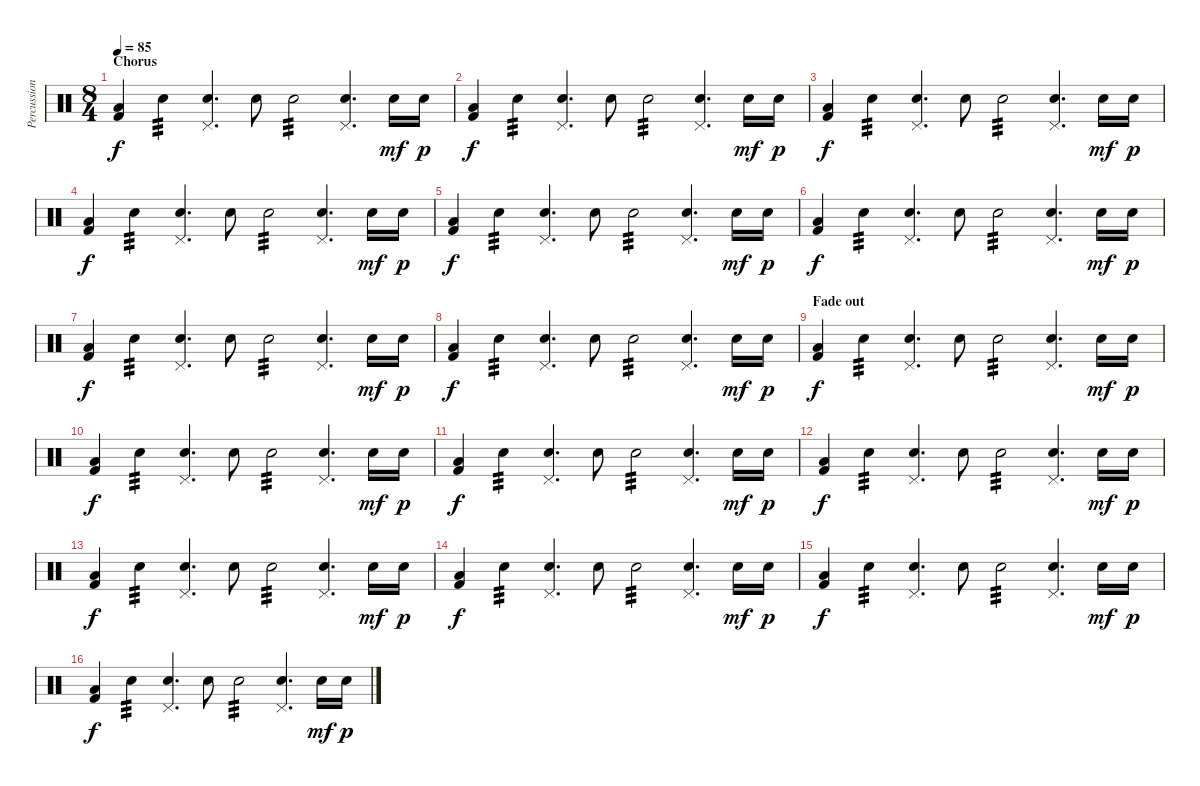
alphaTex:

\track ("Percussion" "Percussion") {instrument percussion}
\staff {score}
\articulation defaults
\ts (8 4)
\section ("" "Chorus")
\tempo 85
\clef neutral
\ks c
("Kick (hit) 2" "Low Floor Tom (hit)").4{dy f volume 8} "Electric Snare (hit)".4{tp 3} ("Pedal Hi-Hat (hit)" "Electric Snare (hit)").4{d} "Electric Snare (hit)".8 "Electric Snare (hit)".2{tp 3} ("Pedal Hi-Hat (hit)" "Electric Snare (hit)").4{d} "Electric Snare (hit)".16{dy mf} "Electric Snare (hit)".16{dy p} |
("Kick (hit) 2" "Low Floor Tom (hit)").4{dy f} "Electric Snare (hit)".4{tp 3} ("Pedal Hi-Hat (hit)" "Electric Snare (hit)").4{d} "Electric Snare (hit)".8 "Electric Snare (hit)".2{tp 3} ("Pedal Hi-Hat (hit)" "Electric Snare (hit)").4{d} "Electric Snare (hit)".16{dy mf} "Electric Snare (hit)".16{dy p} |
("Kick (hit) 2" "Low Floor Tom (hit)").4{dy f} "Electric Snare (hit)".4{tp 3} ("Pedal Hi-Hat (hit)" "Electric Snare (hit)").4{d} "Electric Snare (hit)".8 "Electric Snare (hit)".2{tp 3} ("Pedal Hi-Hat (hit)" "Electric Snare (hit)").4{d} "Electric Snare (hit)".16{dy mf} "Electric Snare (hit)".16{dy p} |
("Kick (hit) 2" "Low Floor Tom (hit)").4{dy f} "Electric Snare (hit)".4{tp 3} ("Pedal Hi-Hat (hit)" "Electric Snare (hit)").4{d} "Electric Snare (hit)".8 "Electric Snare (hit)".2{tp 3} ("Pedal Hi-Hat (hit)" "Electric Snare (hit)").4{d} "Electric Snare (hit)".16{dy mf} "Electric Snare (hit)".16{dy p} |
("Kick (hit) 2" "Low Floor Tom (hit)").4{dy f} "Electric Snare (hit)".4{tp 3} ("Pedal Hi-Hat (hit)" "Electric Snare (hit)").4{d} "Electric Snare (hit)".8 "Electric Snare (hit)".2{tp 3} ("Pedal Hi-Hat (hit)" "Electric Snare (hit)").4{d} "Electric Snare (hit)".16{dy mf} "Electric Snare (hit)".16{dy p} |
("Kick (hit) 2" "Low Floor Tom (hit)").4{dy f} "Electric Snare (hit)".4{tp 3} ("Pedal Hi-Hat (hit)" "Electric Snare (hit)").4{d} "Electric Snare (hit)".8 "Electric Snare (hit)".2{tp 3} ("Pedal Hi-Hat (hit)" "Electric Snare (hit)").4{d} "Electric Snare (hit)".16{dy mf} "Electric Snare (hit)".16{dy p} |
("Kick (hit) 2" "Low Floor Tom (hit)").4{dy f} "Electric Snare (hit)".4{tp 3} ("Pedal Hi-Hat (hit)" "Electric Snare (hit)").4{d} "Electric Snare (hit)".8 "Electric Snare (hit)".2{tp 3} ("Pedal Hi-Hat (hit)" "Electric Snare (hit)").4{d} "Electric Snare (hit)".16{dy mf} "Electric Snare (hit)".16{dy p} |
("Kick (hit) 2" "Low Floor Tom (hit)").4{dy f} "Electric Snare (hit)".4{tp 3} ("Pedal Hi-Hat (hit)" "Electric Snare (hit)").4{d} "Electric Snare (hit)".8 "Electric Snare (hit)".2{tp 3} ("Pedal Hi-Hat (hit)" "Electric Snare (hit)").4{d} "Electric Snare (hit)".16{dy mf} "Electric Snare (hit)".16{dy p} |
\section ("" "Fade out")
("Kick (hit) 2" "Low Floor Tom (hit)").4{dy f} "Electric Snare (hit)".4{tp 3} ("Pedal Hi-Hat (hit)" "Electric Snare (hit)").4{d} "Electric Snare (hit)".8 "Electric Snare (hit)".2{tp 3} ("Pedal Hi-Hat (hit)" "Electric Snare (hit)").4{d} "Electric Snare (hit)".16{dy mf} "Electric Snare (hit)".16{dy p} |
("Kick (hit) 2" "Low Floor Tom (hit)").4{dy f} "Electric Snare (hit)".4{tp 3} ("Pedal Hi-Hat (hit)" "Electric Snare (hit)").4{d} "Electric Snare (hit)".8 "Electric Snare (hit)".2{tp 3} ("Pedal Hi-Hat (hit)" "Electric Snare (hit)").4{d} "Electric Snare (hit)".16{dy mf} "Electric Snare (hit)".16{dy p} |
("Kick (hit) 2" "Low Floor Tom (hit)").4{dy f} "Electric Snare (hit)".4{tp 3} ("Pedal Hi-Hat (hit)" "Electric Snare (hit)").4{d} "Electric Snare (hit)".8 "Electric Snare (hit)".2{tp 3} ("Pedal Hi-Hat (hit)" "Electric Snare (hit)").4{d} "Electric Snare (hit)".16{dy mf} "Electric Snare (hit)".16{dy p} |
("Kick (hit) 2" "Low Floor Tom (hit)").4{dy f} "Electric Snare (hit)".4{tp 3} ("Pedal Hi-Hat (hit)" "Electric Snare (hit)").4{d} "Electric Snare (hit)".8 "Electric Snare (hit)".2{tp 3} ("Pedal Hi-Hat (hit)" "Electric Snare (hit)").4{d} "Electric Snare (hit)".16{dy mf} "Electric Snare (hit)".16{dy p} |
("Kick (hit) 2" "Low Floor Tom (hit)").4{dy f} "Electric Snare (hit)".4{tp 3} ("Pedal Hi-Hat (hit)" "Electric Snare (hit)").4{d} "Electric Snare (hit)".8 "Electric Snare (hit)".2{tp 3} ("Pedal Hi-Hat (hit)" "Electric Snare (hit)").4{d} "Electric Snare (hit)".16{dy mf} "Electric Snare (hit)".16{dy p} |
("Kick (hit) 2" "Low Floor Tom (hit)").4{dy f} "Electric Snare (hit)".4{tp 3} ("Pedal Hi-Hat (hit)" "Electric Snare (hit)").4{d} "Electric Snare (hit)".8 "Electric Snare (hit)".2{tp 3} ("Pedal Hi-Hat (hit)" "Electric Snare (hit)").4{d} "Electric Snare (hit)".16{dy mf} "Electric Snare (hit)".16{dy p} |
("Kick (hit) 2" "Low Floor Tom (hit)").4{dy f} "Electric Snare (hit)".4{tp 3} ("Pedal Hi-Hat (hit)" "Electric Snare (hit)").4{d} "Electric Snare (hit)".8 "Electric Snare (hit)".2{tp 3} ("Pedal Hi-Hat (hit)" "Electric Snare (hit)").4{d} "Electric Snare (hit)".16{dy mf} "Electric Snare (hit)".16{dy p} |
("Kick (hit) 2" "Low Floor Tom (hit)").4{dy f} "Electric Snare (hit)".4{tp 3} ("Pedal Hi-Hat (hit)" "Electric Snare (hit)").4{d} "Electric Snare (hit)".8 "Electric Snare (hit)".2{tp 3} ("Pedal Hi-Hat (hit)" "Electric Snare (hit)").4{d} "Electric Snare (hit)".16{dy mf} "Electric Snare (hit)".16{dy p}
